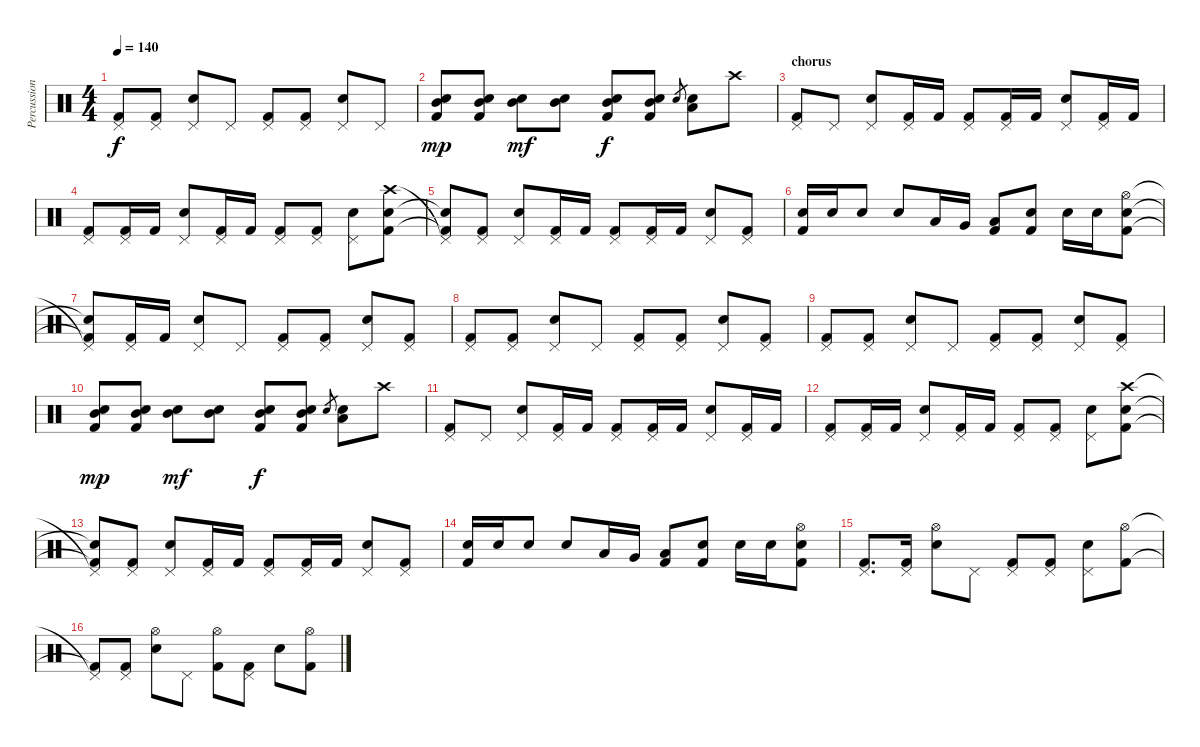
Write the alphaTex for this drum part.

\track ("Percussions" "Percussion") {instrument percussion}
\staff {score}
\articulation defaults
\ts (4 4)
\tempo 140
\clef neutral
\ks c
("Pedal Hi-Hat (hit)" "Kick (hit) 2").8{dy f} ("Pedal Hi-Hat (hit)" "Kick (hit) 2").8 ("Pedal Hi-Hat (hit)" "Snare (hit) 2").8 "Pedal Hi-Hat (hit)".8 ("Pedal Hi-Hat (hit)" "Kick (hit) 2").8 ("Pedal Hi-Hat (hit)" "Kick (hit) 2").8 ("Pedal Hi-Hat (hit)" "Snare (hit) 2").8 "Pedal Hi-Hat (hit)".8 |
("Mid Tom (hit)" "Snare (hit) 2" "Kick (hit) 2").8{dy mp} ("Mid Tom (hit)" "Snare (hit) 2" "Kick (hit) 2").8 ("Mid Tom (hit)" "Snare (hit) 2").8{dy mf} ("Mid Tom (hit)" "Snare (hit) 2").8 ("Mid Tom (hit)" "Snare (hit) 2" "Kick (hit) 2").8{dy f} ("Mid Tom (hit)" "Snare (hit) 2" "Kick (hit) 2").8 "Snare (hit) 2".8{gr} ("Low Tom (hit)" "Electric Snare (hit)").8 "Crash high (hit)".8 |
\section ("" "chorus")
("Pedal Hi-Hat (hit)" "Kick (hit) 2").8 "Pedal Hi-Hat (hit)".8 ("Pedal Hi-Hat (hit)" "Snare (hit) 2").8 ("Pedal Hi-Hat (hit)" "Kick (hit) 2").16 "Kick (hit) 2".16 ("Pedal Hi-Hat (hit)" "Kick (hit) 2").8 ("Pedal Hi-Hat (hit)" "Kick (hit) 2").16 "Kick (hit) 2".16 ("Pedal Hi-Hat (hit)" "Snare (hit) 2").8 ("Pedal Hi-Hat (hit)" "Kick (hit) 2").16 "Kick (hit) 2".16 |
("Pedal Hi-Hat (hit)" "Kick (hit) 2").8 ("Pedal Hi-Hat (hit)" "Kick (hit) 2").16 "Kick (hit) 2".16 ("Pedal Hi-Hat (hit)" "Snare (hit) 2").8 ("Pedal Hi-Hat (hit)" "Kick (hit) 2").16 "Kick (hit) 2".16 ("Pedal Hi-Hat (hit)" "Kick (hit) 2").8 ("Pedal Hi-Hat (hit)" "Kick (hit) 2").8 ("Pedal Hi-Hat (hit)" "Snare (hit) 2").8 ("Crash high (hit)" "Snare (hit) 2" "Kick (hit) 2").8 |
("Pedal Hi-Hat (hit)"{t} "Snare (hit)"{t} "Kick (hit) 2"{t}).8 ("Pedal Hi-Hat (hit)" "Kick (hit) 2").8 ("Pedal Hi-Hat (hit)" "Snare (hit) 2").8 ("Pedal Hi-Hat (hit)" "Kick (hit) 2").16 "Kick (hit) 2".16 ("Pedal Hi-Hat (hit)" "Kick (hit) 2").8 ("Pedal Hi-Hat (hit)" "Kick (hit) 2").16 "Kick (hit) 2".16 ("Pedal Hi-Hat (hit)" "Snare (hit) 2").8 ("Pedal Hi-Hat (hit)" "Kick (hit) 2").8 |
("Electric Snare (hit)" "Kick (hit) 2").16 "Snare (hit) 2".16 "Electric Snare (hit)".8 "Electric Snare (hit)".8 "Low Tom (hit)".16 "Very Low Tom (hit)".16 ("Low Floor Tom (hit)" "Kick (hit) 2").8 ("Electric Snare (hit)" "Kick (hit) 2").8 "Snare (hit) 2".16 "Snare (hit) 2".16 ("Hi-Hat (open)" "Electric Snare (hit)" "Kick (hit) 2").8 |
("Pedal Hi-Hat (hit)"{t} "Snare (hit)"{t} "Kick (hit) 2"{t}).8 ("Pedal Hi-Hat (hit)" "Kick (hit) 2").16 "Kick (hit) 2".16 ("Pedal Hi-Hat (hit)" "Snare (hit) 2").8 "Pedal Hi-Hat (hit)".8 ("Pedal Hi-Hat (hit)" "Kick (hit) 2").8 ("Pedal Hi-Hat (hit)" "Kick (hit) 2").8 ("Pedal Hi-Hat (hit)" "Snare (hit) 2").8 ("Pedal Hi-Hat (hit)" "Kick (hit) 2").8 |
("Pedal Hi-Hat (hit)" "Kick (hit) 2").8 ("Pedal Hi-Hat (hit)" "Kick (hit) 2").8 ("Pedal Hi-Hat (hit)" "Snare (hit) 2").8 "Pedal Hi-Hat (hit)".8 ("Pedal Hi-Hat (hit)" "Kick (hit) 2").8 ("Pedal Hi-Hat (hit)" "Kick (hit) 2").8 ("Pedal Hi-Hat (hit)" "Snare (hit) 2").8 ("Pedal Hi-Hat (hit)" "Kick (hit) 2").8 |
("Pedal Hi-Hat (hit)" "Kick (hit) 2").8 ("Pedal Hi-Hat (hit)" "Kick (hit) 2").8 ("Pedal Hi-Hat (hit)" "Snare (hit) 2").8 "Pedal Hi-Hat (hit)".8 ("Pedal Hi-Hat (hit)" "Kick (hit) 2").8 ("Pedal Hi-Hat (hit)" "Kick (hit) 2").8 ("Pedal Hi-Hat (hit)" "Snare (hit) 2").8 ("Pedal Hi-Hat (hit)" "Kick (hit) 2").8 |
("Mid Tom (hit)" "Snare (hit) 2" "Kick (hit) 2").8{dy mp} ("Mid Tom (hit)" "Snare (hit) 2" "Kick (hit) 2").8 ("Mid Tom (hit)" "Snare (hit) 2").8{dy mf} ("Mid Tom (hit)" "Snare (hit) 2").8 ("Mid Tom (hit)" "Snare (hit) 2" "Kick (hit) 2").8{dy f} ("Mid Tom (hit)" "Snare (hit) 2" "Kick (hit) 2").8 "Snare (hit) 2".8{gr} ("Low Tom (hit)" "Electric Snare (hit)").8 "Crash high (hit)".8 |
("Pedal Hi-Hat (hit)" "Kick (hit) 2").8 "Pedal Hi-Hat (hit)".8 ("Pedal Hi-Hat (hit)" "Snare (hit) 2").8 ("Pedal Hi-Hat (hit)" "Kick (hit) 2").16 "Kick (hit) 2".16 ("Pedal Hi-Hat (hit)" "Kick (hit) 2").8 ("Pedal Hi-Hat (hit)" "Kick (hit) 2").16 "Kick (hit) 2".16 ("Pedal Hi-Hat (hit)" "Snare (hit) 2").8 ("Pedal Hi-Hat (hit)" "Kick (hit) 2").16 "Kick (hit) 2".16 |
("Pedal Hi-Hat (hit)" "Kick (hit) 2").8 ("Pedal Hi-Hat (hit)" "Kick (hit) 2").16 "Kick (hit) 2".16 ("Pedal Hi-Hat (hit)" "Snare (hit) 2").8 ("Pedal Hi-Hat (hit)" "Kick (hit) 2").16 "Kick (hit) 2".16 ("Pedal Hi-Hat (hit)" "Kick (hit) 2").8 ("Pedal Hi-Hat (hit)" "Kick (hit) 2").8 ("Pedal Hi-Hat (hit)" "Snare (hit) 2").8 ("Crash high (hit)" "Snare (hit) 2" "Kick (hit) 2").8 |
("Pedal Hi-Hat (hit)"{t} "Snare (hit)"{t} "Kick (hit) 2"{t}).8 ("Pedal Hi-Hat (hit)" "Kick (hit) 2").8 ("Pedal Hi-Hat (hit)" "Snare (hit) 2").8 ("Pedal Hi-Hat (hit)" "Kick (hit) 2").16 "Kick (hit) 2".16 ("Pedal Hi-Hat (hit)" "Kick (hit) 2").8 ("Pedal Hi-Hat (hit)" "Kick (hit) 2").16 "Kick (hit) 2".16 ("Pedal Hi-Hat (hit)" "Snare (hit) 2").8 ("Pedal Hi-Hat (hit)" "Kick (hit) 2").8 |
("Electric Snare (hit)" "Kick (hit) 2").16 "Snare (hit) 2".16 "Electric Snare (hit)".8 "Electric Snare (hit)".8 "Low Tom (hit)".16 "Very Low Tom (hit)".16 ("Low Floor Tom (hit)" "Kick (hit) 2").8 ("Electric Snare (hit)" "Kick (hit) 2").8 "Snare (hit) 2".16 "Snare (hit) 2".16 ("Hi-Hat (open)" "Electric Snare (hit)" "Kick (hit) 2").8 |
("Pedal Hi-Hat (hit)" "Kick (hit) 2").8{d} ("Pedal Hi-Hat (hit)" "Kick (hit) 2").16 ("Hi-Hat (open)" "Snare (hit) 2").8 "Pedal Hi-Hat (hit)".8 ("Pedal Hi-Hat (hit)" "Kick (hit) 2").8 ("Pedal Hi-Hat (hit)" "Kick (hit) 2").8 ("Pedal Hi-Hat (hit)" "Snare (hit) 2").8 ("Hi-Hat (open)" "Kick (hit) 2").8 |
("Pedal Hi-Hat (hit)"{t} "Kick (hit) 2"{t}).8 ("Pedal Hi-Hat (hit)" "Kick (hit) 2").8 ("Hi-Hat (open)" "Snare (hit) 2").8 "Pedal Hi-Hat (hit)".8 ("Hi-Hat (open)" "Kick (hit) 2").8 ("Pedal Hi-Hat (hit)" "Kick (hit) 2").8 "Snare (hit) 2".8 ("Hi-Hat (open)" "Kick (hit) 2").8
